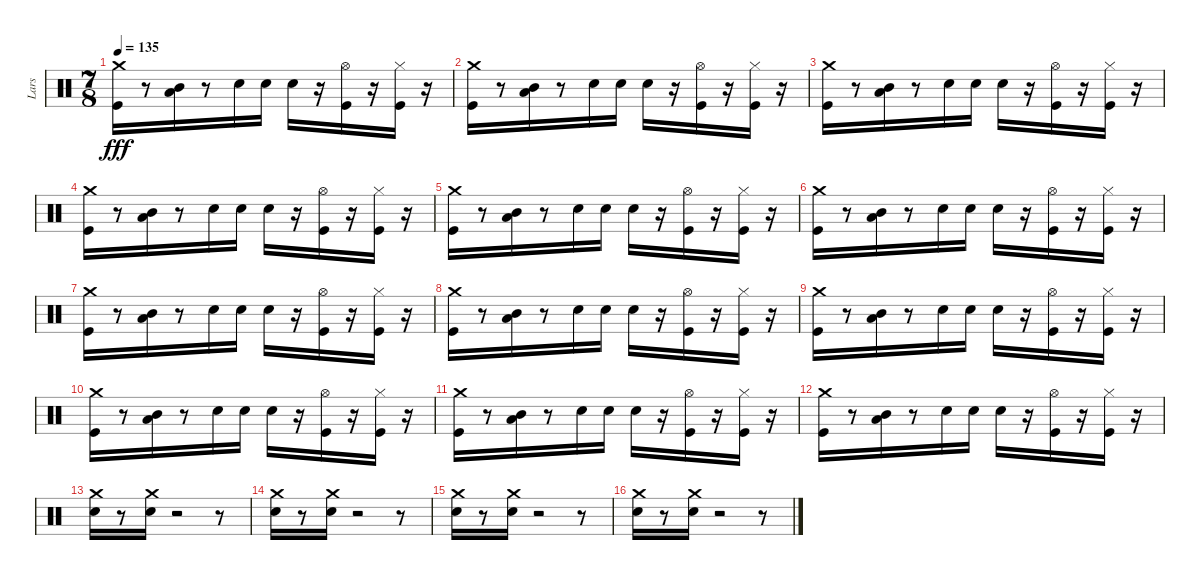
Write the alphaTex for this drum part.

\track ("Lars" "Lars") {instrument percussion bank 102}
\staff {score}
\articulation defaults
\ts (7 8)
\tempo 135
\clef neutral
\ks c
("Crash medium (hit)" "Kick (hit)").16{dy fff} r.8 ("Low Tom (hit)" "Mid Tom (hit)").16 r.8 "Snare (hit) 2".16 "Snare (hit) 2".16 "Snare (hit) 2".16 r.16 ("Hi-Hat (open)" "Kick (hit)").16 r.16 ("Hi-Hat (closed)" "Kick (hit)").16 r.16 |
("Crash medium (hit)" "Kick (hit)").16 r.8 ("Low Tom (hit)" "Mid Tom (hit)").16 r.8 "Snare (hit) 2".16 "Snare (hit) 2".16 "Snare (hit) 2".16 r.16 ("Hi-Hat (open)" "Kick (hit)").16 r.16 ("Hi-Hat (closed)" "Kick (hit)").16 r.16 |
("Crash medium (hit)" "Kick (hit)").16 r.8 ("Low Tom (hit)" "Mid Tom (hit)").16 r.8 "Snare (hit) 2".16 "Snare (hit) 2".16 "Snare (hit) 2".16 r.16 ("Hi-Hat (open)" "Kick (hit)").16 r.16 ("Hi-Hat (closed)" "Kick (hit)").16 r.16 |
("Crash medium (hit)" "Kick (hit)").16 r.8 ("Low Tom (hit)" "Mid Tom (hit)").16 r.8 "Snare (hit) 2".16 "Snare (hit) 2".16 "Snare (hit) 2".16 r.16 ("Hi-Hat (open)" "Kick (hit)").16 r.16 ("Hi-Hat (closed)" "Kick (hit)").16 r.16 |
("Crash medium (hit)" "Kick (hit)").16 r.8 ("Low Tom (hit)" "Mid Tom (hit)").16 r.8 "Snare (hit) 2".16 "Snare (hit) 2".16 "Snare (hit) 2".16 r.16 ("Hi-Hat (open)" "Kick (hit)").16 r.16 ("Hi-Hat (closed)" "Kick (hit)").16 r.16 |
("Crash medium (hit)" "Kick (hit)").16 r.8 ("Low Tom (hit)" "Mid Tom (hit)").16 r.8 "Snare (hit) 2".16 "Snare (hit) 2".16 "Snare (hit) 2".16 r.16 ("Hi-Hat (open)" "Kick (hit)").16 r.16 ("Hi-Hat (closed)" "Kick (hit)").16 r.16 |
("Crash medium (hit)" "Kick (hit)").16 r.8 ("Low Tom (hit)" "Mid Tom (hit)").16 r.8 "Snare (hit) 2".16 "Snare (hit) 2".16 "Snare (hit) 2".16 r.16 ("Hi-Hat (open)" "Kick (hit)").16 r.16 ("Hi-Hat (closed)" "Kick (hit)").16 r.16 |
("Crash medium (hit)" "Kick (hit)").16 r.8 ("Low Tom (hit)" "Mid Tom (hit)").16 r.8 "Snare (hit) 2".16 "Snare (hit) 2".16 "Snare (hit) 2".16 r.16 ("Hi-Hat (open)" "Kick (hit)").16 r.16 ("Hi-Hat (closed)" "Kick (hit)").16 r.16 |
("Crash medium (hit)" "Kick (hit)").16 r.8 ("Low Tom (hit)" "Mid Tom (hit)").16 r.8 "Snare (hit) 2".16 "Snare (hit) 2".16 "Snare (hit) 2".16 r.16 ("Hi-Hat (open)" "Kick (hit)").16 r.16 ("Hi-Hat (closed)" "Kick (hit)").16 r.16 |
("Crash medium (hit)" "Kick (hit)").16 r.8 ("Low Tom (hit)" "Mid Tom (hit)").16 r.8 "Snare (hit) 2".16 "Snare (hit) 2".16 "Snare (hit) 2".16 r.16 ("Hi-Hat (open)" "Kick (hit)").16 r.16 ("Hi-Hat (closed)" "Kick (hit)").16 r.16 |
("Crash medium (hit)" "Kick (hit)").16 r.8 ("Low Tom (hit)" "Mid Tom (hit)").16 r.8 "Snare (hit) 2".16 "Snare (hit) 2".16 "Snare (hit) 2".16 r.16 ("Hi-Hat (open)" "Kick (hit)").16 r.16 ("Hi-Hat (closed)" "Kick (hit)").16 r.16 |
("Crash medium (hit)" "Kick (hit)").16 r.8 ("Low Tom (hit)" "Mid Tom (hit)").16 r.8 "Snare (hit) 2".16 "Snare (hit) 2".16 "Snare (hit) 2".16 r.16 ("Hi-Hat (open)" "Kick (hit)").16 r.16 ("Hi-Hat (closed)" "Kick (hit)").16 r.16 |
("Crash medium (hit)" "Snare (hit) 2").16 r.8 ("Crash medium (hit)" "Snare (hit) 2").16 r.2 r.8 |
("Crash medium (hit)" "Snare (hit) 2").16 r.8 ("Crash medium (hit)" "Snare (hit) 2").16 r.2 r.8 |
("Crash medium (hit)" "Snare (hit) 2").16 r.8 ("Crash medium (hit)" "Snare (hit) 2").16 r.2 r.8 |
("Crash medium (hit)" "Snare (hit) 2").16 r.8 ("Crash medium (hit)" "Snare (hit) 2").16 r.2 r.8
